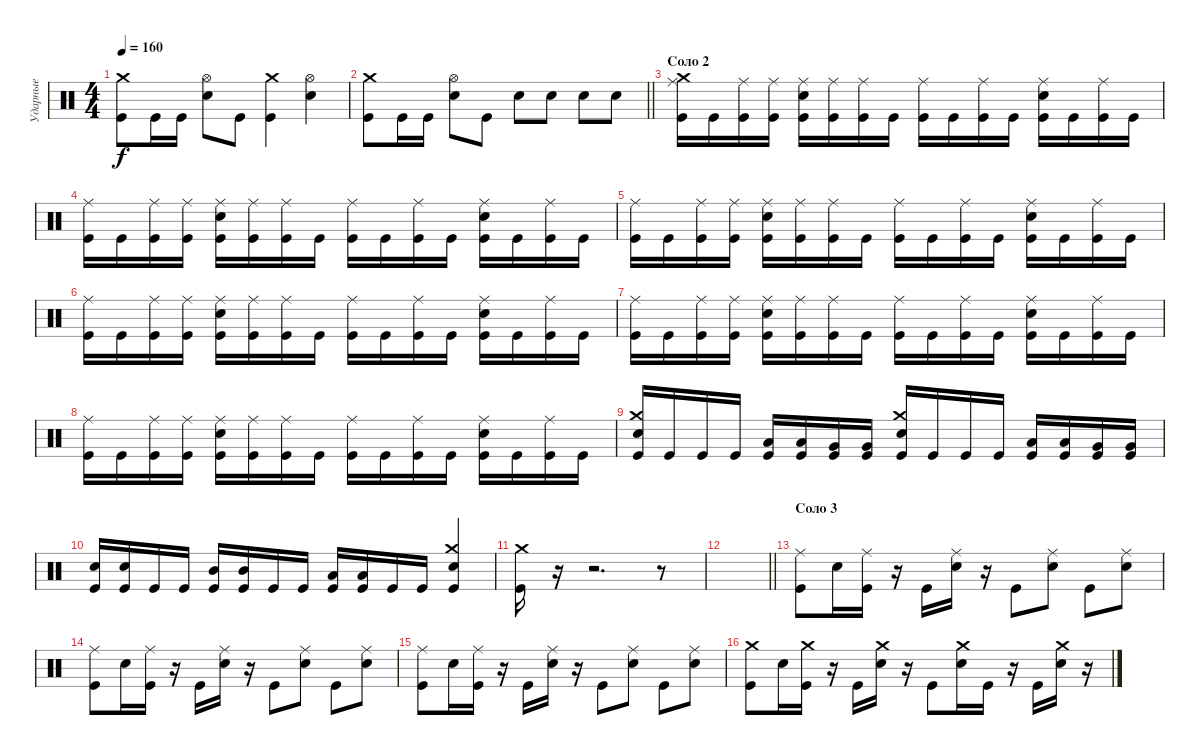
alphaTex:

\track ("Ударные" "Ударные") {instrument percussion}
\staff {score}
\articulation defaults
\ts (4 4)
\tempo 160
\clef neutral
\ks c
("Kick (hit)" "Crash medium (hit)").8{dy f} "Kick (hit)".16 "Kick (hit)".16 ("Snare (hit) 2" "Hi-Hat (open)").8 "Kick (hit)".8 ("Kick (hit)" "Crash medium (hit)").4 ("Snare (hit) 2" "Hi-Hat (open)").4 |
\barLineRight lightlight
("Kick (hit)" "Crash medium (hit)").8 "Kick (hit)".16 "Kick (hit)".16 ("Snare (hit) 2" "Hi-Hat (open)").8 "Kick (hit)".8 "Snare (hit) 2".8 "Snare (hit) 2".8 "Snare (hit) 2".8 "Snare (hit) 2".8 |
\section ("" "Соло 2")
("Kick (hit)" "Ride (middle)" "Crash medium (hit)").16 "Kick (hit)".16 ("Kick (hit)" "Ride (middle)").16 ("Kick (hit)" "Ride (middle)").16 ("Kick (hit)" "Snare (hit) 2" "Ride (middle)").16 ("Kick (hit)" "Ride (middle)").16 ("Kick (hit)" "Ride (middle)").16 "Kick (hit)".16 ("Kick (hit)" "Ride (middle)").16 "Kick (hit)".16 ("Kick (hit)" "Ride (middle)").16 "Kick (hit)".16 ("Kick (hit)" "Snare (hit) 2" "Ride (middle)").16 "Kick (hit)".16 ("Kick (hit)" "Ride (middle)").16 "Kick (hit)".16 |
("Kick (hit)" "Ride (middle)").16 "Kick (hit)".16 ("Kick (hit)" "Ride (middle)").16 ("Kick (hit)" "Ride (middle)").16 ("Kick (hit)" "Snare (hit) 2" "Ride (middle)").16 ("Kick (hit)" "Ride (middle)").16 ("Kick (hit)" "Ride (middle)").16 "Kick (hit)".16 ("Kick (hit)" "Ride (middle)").16 "Kick (hit)".16 ("Kick (hit)" "Ride (middle)").16 "Kick (hit)".16 ("Kick (hit)" "Snare (hit) 2" "Ride (middle)").16 "Kick (hit)".16 ("Kick (hit)" "Ride (middle)").16 "Kick (hit)".16 |
("Kick (hit)" "Ride (middle)").16 "Kick (hit)".16 ("Kick (hit)" "Ride (middle)").16 ("Kick (hit)" "Ride (middle)").16 ("Kick (hit)" "Snare (hit) 2" "Ride (middle)").16 ("Kick (hit)" "Ride (middle)").16 ("Kick (hit)" "Ride (middle)").16 "Kick (hit)".16 ("Kick (hit)" "Ride (middle)").16 "Kick (hit)".16 ("Kick (hit)" "Ride (middle)").16 "Kick (hit)".16 ("Kick (hit)" "Snare (hit) 2" "Ride (middle)").16 "Kick (hit)".16 ("Kick (hit)" "Ride (middle)").16 "Kick (hit)".16 |
("Kick (hit)" "Ride (middle)").16 "Kick (hit)".16 ("Kick (hit)" "Ride (middle)").16 ("Kick (hit)" "Ride (middle)").16 ("Kick (hit)" "Snare (hit) 2" "Ride (middle)").16 ("Kick (hit)" "Ride (middle)").16 ("Kick (hit)" "Ride (middle)").16 "Kick (hit)".16 ("Kick (hit)" "Ride (middle)").16 "Kick (hit)".16 ("Kick (hit)" "Ride (middle)").16 "Kick (hit)".16 ("Kick (hit)" "Snare (hit) 2" "Ride (middle)").16 "Kick (hit)".16 ("Kick (hit)" "Ride (middle)").16 "Kick (hit)".16 |
("Kick (hit)" "Ride (middle)").16 "Kick (hit)".16 ("Kick (hit)" "Ride (middle)").16 ("Kick (hit)" "Ride (middle)").16 ("Kick (hit)" "Snare (hit) 2" "Ride (middle)").16 ("Kick (hit)" "Ride (middle)").16 ("Kick (hit)" "Ride (middle)").16 "Kick (hit)".16 ("Kick (hit)" "Ride (middle)").16 "Kick (hit)".16 ("Kick (hit)" "Ride (middle)").16 "Kick (hit)".16 ("Kick (hit)" "Snare (hit) 2" "Ride (middle)").16 "Kick (hit)".16 ("Kick (hit)" "Ride (middle)").16 "Kick (hit)".16 |
("Kick (hit)" "Ride (middle)").16 "Kick (hit)".16 ("Kick (hit)" "Ride (middle)").16 ("Kick (hit)" "Ride (middle)").16 ("Kick (hit)" "Snare (hit) 2" "Ride (middle)").16 ("Kick (hit)" "Ride (middle)").16 ("Kick (hit)" "Ride (middle)").16 "Kick (hit)".16 ("Kick (hit)" "Ride (middle)").16 "Kick (hit)".16 ("Kick (hit)" "Ride (middle)").16 "Kick (hit)".16 ("Kick (hit)" "Snare (hit) 2" "Ride (middle)").16 "Kick (hit)".16 ("Kick (hit)" "Ride (middle)").16 "Kick (hit)".16 |
("Kick (hit)" "Snare (hit) 2" "Crash medium (hit)").16 "Kick (hit)".16 "Kick (hit)".16 "Kick (hit)".16 ("Kick (hit)" "Low Tom (hit)").16 ("Kick (hit)" "Low Tom (hit)").16 ("Kick (hit)" "Very Low Tom (hit)").16 ("Kick (hit)" "Very Low Tom (hit)").16 ("Kick (hit)" "Snare (hit) 2" "Crash medium (hit)").16 "Kick (hit)".16 "Kick (hit)".16 "Kick (hit)".16 ("Kick (hit)" "Low Tom (hit)").16 ("Kick (hit)" "Low Tom (hit)").16 ("Kick (hit)" "Very Low Tom (hit)").16 ("Kick (hit)" "Very Low Tom (hit)").16 |
("Kick (hit)" "Snare (hit) 2").16 ("Kick (hit)" "Snare (hit) 2").16 "Kick (hit)".16 "Kick (hit)".16 ("Kick (hit)" "Mid Tom (hit)").16 ("Kick (hit)" "Mid Tom (hit)").16 "Kick (hit)".16 "Kick (hit)".16 ("Kick (hit)" "Low Tom (hit)").16 ("Kick (hit)" "Low Tom (hit)").16 "Kick (hit)".16 "Kick (hit)".16 ("Kick (hit)" "Snare (hit) 2" "Crash medium (hit)").4 |
("Kick (hit)" "Crash medium (hit)").16 r.16 r.2{d} r.8 |
\barLineRight lightlight
|
\section ("" "Соло 3")
("Kick (hit)" "Ride (middle)").8 "Snare (hit) 2".16 ("Kick (hit)" "Ride (middle)").16 r.16 "Kick (hit)".16 ("Snare (hit) 2" "Ride (middle)").16 r.16 "Kick (hit)".8 ("Snare (hit) 2" "Ride (middle)").8 "Kick (hit)".8 ("Snare (hit) 2" "Ride (middle)").8 |
("Kick (hit)" "Ride (middle)").8 "Snare (hit) 2".16 ("Kick (hit)" "Ride (middle)").16 r.16 "Kick (hit)".16 ("Snare (hit) 2" "Ride (middle)").16 r.16 "Kick (hit)".8 ("Snare (hit) 2" "Ride (middle)").8 "Kick (hit)".8 ("Snare (hit) 2" "Ride (middle)").8 |
("Kick (hit)" "Ride (middle)").8 "Snare (hit) 2".16 ("Kick (hit)" "Ride (middle)").16 r.16 "Kick (hit)".16 ("Snare (hit) 2" "Ride (middle)").16 r.16 "Kick (hit)".8 ("Snare (hit) 2" "Ride (middle)").8 "Kick (hit)".8 ("Snare (hit) 2" "Ride (middle)").8 |
("Kick (hit)" "Crash medium (hit)").8 "Snare (hit) 2".16 ("Kick (hit)" "Crash medium (hit)").16 r.16 "Kick (hit)".16 ("Snare (hit) 2" "Crash medium (hit)").16 r.16 "Kick (hit)".8 ("Snare (hit) 2" "Crash medium (hit)").16 "Kick (hit)".16 r.16 "Kick (hit)".16 ("Snare (hit) 2" "Crash medium (hit)").16 r.16
